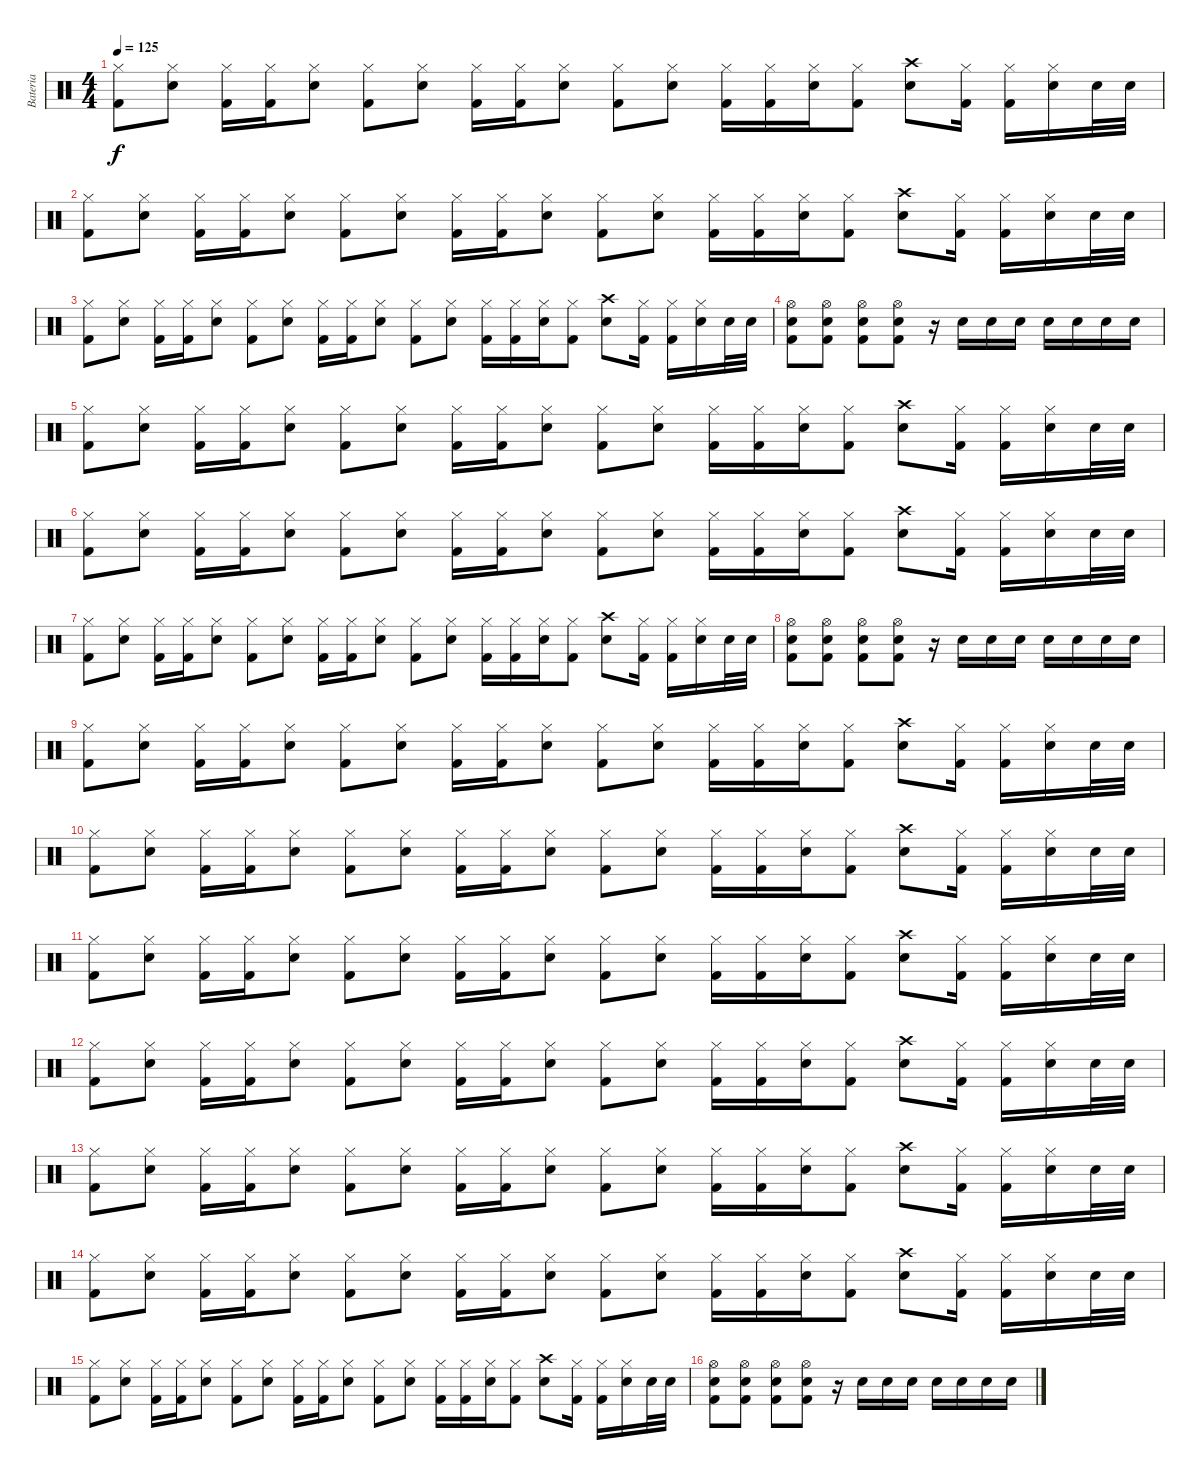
\track ("Bateria" "Bateria") {instrument percussion}
\staff {score}
\articulation defaults
\ts (4 4)
\tempo 125
\clef neutral
\ks c
("Kick (hit) 2" "Hi-Hat (closed)").8{dy f} ("Snare (hit) 2" "Hi-Hat (closed)").8 ("Kick (hit) 2" "Hi-Hat (closed)").16 ("Kick (hit) 2" "Hi-Hat (closed)").16 ("Snare (hit) 2" "Hi-Hat (closed)").8 ("Kick (hit) 2" "Hi-Hat (closed)").8 ("Snare (hit) 2" "Hi-Hat (closed)").8 ("Kick (hit) 2" "Hi-Hat (closed)").16 ("Kick (hit) 2" "Hi-Hat (closed)").16 ("Snare (hit) 2" "Hi-Hat (closed)").8 ("Kick (hit) 2" "Hi-Hat (closed)").8 ("Snare (hit) 2" "Hi-Hat (closed)").8 ("Kick (hit) 2" "Hi-Hat (closed)").16 ("Kick (hit) 2" "Hi-Hat (closed)").16 ("Snare (hit) 2" "Hi-Hat (closed)").16 ("Kick (hit) 2" "Hi-Hat (closed)").8 ("Snare (hit) 2" "Crash high (hit)").8 ("Kick (hit) 2" "Hi-Hat (closed)").16 ("Kick (hit) 2" "Hi-Hat (closed)").16 ("Snare (hit) 2" "Hi-Hat (closed)").16 "Snare (hit) 2".32 "Snare (hit) 2".32 |
("Kick (hit) 2" "Hi-Hat (closed)").8 ("Snare (hit) 2" "Hi-Hat (closed)").8 ("Kick (hit) 2" "Hi-Hat (closed)").16 ("Kick (hit) 2" "Hi-Hat (closed)").16 ("Snare (hit) 2" "Hi-Hat (closed)").8 ("Kick (hit) 2" "Hi-Hat (closed)").8 ("Snare (hit) 2" "Hi-Hat (closed)").8 ("Kick (hit) 2" "Hi-Hat (closed)").16 ("Kick (hit) 2" "Hi-Hat (closed)").16 ("Snare (hit) 2" "Hi-Hat (closed)").8 ("Kick (hit) 2" "Hi-Hat (closed)").8 ("Snare (hit) 2" "Hi-Hat (closed)").8 ("Kick (hit) 2" "Hi-Hat (closed)").16 ("Kick (hit) 2" "Hi-Hat (closed)").16 ("Snare (hit) 2" "Hi-Hat (closed)").16 ("Kick (hit) 2" "Hi-Hat (closed)").8 ("Snare (hit) 2" "Crash high (hit)").8 ("Kick (hit) 2" "Hi-Hat (closed)").16 ("Kick (hit) 2" "Hi-Hat (closed)").16 ("Snare (hit) 2" "Hi-Hat (closed)").16 "Snare (hit) 2".32 "Snare (hit) 2".32 |
("Kick (hit) 2" "Hi-Hat (closed)").8 ("Snare (hit) 2" "Hi-Hat (closed)").8 ("Kick (hit) 2" "Hi-Hat (closed)").16 ("Kick (hit) 2" "Hi-Hat (closed)").16 ("Snare (hit) 2" "Hi-Hat (closed)").8 ("Kick (hit) 2" "Hi-Hat (closed)").8 ("Snare (hit) 2" "Hi-Hat (closed)").8 ("Kick (hit) 2" "Hi-Hat (closed)").16 ("Kick (hit) 2" "Hi-Hat (closed)").16 ("Snare (hit) 2" "Hi-Hat (closed)").8 ("Kick (hit) 2" "Hi-Hat (closed)").8 ("Snare (hit) 2" "Hi-Hat (closed)").8 ("Kick (hit) 2" "Hi-Hat (closed)").16 ("Kick (hit) 2" "Hi-Hat (closed)").16 ("Snare (hit) 2" "Hi-Hat (closed)").16 ("Kick (hit) 2" "Hi-Hat (closed)").8 ("Snare (hit) 2" "Crash high (hit)").8 ("Kick (hit) 2" "Hi-Hat (closed)").16 ("Kick (hit) 2" "Hi-Hat (closed)").16 ("Snare (hit) 2" "Hi-Hat (closed)").16 "Snare (hit) 2".32 "Snare (hit) 2".32 |
("Kick (hit) 2" "Snare (hit) 2" "Hi-Hat (open)").8 ("Kick (hit) 2" "Snare (hit) 2" "Hi-Hat (open)").8 ("Kick (hit) 2" "Snare (hit) 2" "Hi-Hat (open)").8 ("Kick (hit) 2" "Snare (hit) 2" "Hi-Hat (open)").8 r.16 "Snare (hit) 2".16 "Snare (hit) 2".16 "Snare (hit) 2".16 "Snare (hit) 2".16 "Snare (hit) 2".16 "Snare (hit) 2".16 "Snare (hit) 2".16 |
("Kick (hit) 2" "Hi-Hat (closed)").8 ("Snare (hit) 2" "Hi-Hat (closed)").8 ("Kick (hit) 2" "Hi-Hat (closed)").16 ("Kick (hit) 2" "Hi-Hat (closed)").16 ("Snare (hit) 2" "Hi-Hat (closed)").8 ("Kick (hit) 2" "Hi-Hat (closed)").8 ("Snare (hit) 2" "Hi-Hat (closed)").8 ("Kick (hit) 2" "Hi-Hat (closed)").16 ("Kick (hit) 2" "Hi-Hat (closed)").16 ("Snare (hit) 2" "Hi-Hat (closed)").8 ("Kick (hit) 2" "Hi-Hat (closed)").8 ("Snare (hit) 2" "Hi-Hat (closed)").8 ("Kick (hit) 2" "Hi-Hat (closed)").16 ("Kick (hit) 2" "Hi-Hat (closed)").16 ("Snare (hit) 2" "Hi-Hat (closed)").16 ("Kick (hit) 2" "Hi-Hat (closed)").8 ("Snare (hit) 2" "Crash high (hit)").8 ("Kick (hit) 2" "Hi-Hat (closed)").16 ("Kick (hit) 2" "Hi-Hat (closed)").16 ("Snare (hit) 2" "Hi-Hat (closed)").16 "Snare (hit) 2".32 "Snare (hit) 2".32 |
("Kick (hit) 2" "Hi-Hat (closed)").8 ("Snare (hit) 2" "Hi-Hat (closed)").8 ("Kick (hit) 2" "Hi-Hat (closed)").16 ("Kick (hit) 2" "Hi-Hat (closed)").16 ("Snare (hit) 2" "Hi-Hat (closed)").8 ("Kick (hit) 2" "Hi-Hat (closed)").8 ("Snare (hit) 2" "Hi-Hat (closed)").8 ("Kick (hit) 2" "Hi-Hat (closed)").16 ("Kick (hit) 2" "Hi-Hat (closed)").16 ("Snare (hit) 2" "Hi-Hat (closed)").8 ("Kick (hit) 2" "Hi-Hat (closed)").8 ("Snare (hit) 2" "Hi-Hat (closed)").8 ("Kick (hit) 2" "Hi-Hat (closed)").16 ("Kick (hit) 2" "Hi-Hat (closed)").16 ("Snare (hit) 2" "Hi-Hat (closed)").16 ("Kick (hit) 2" "Hi-Hat (closed)").8 ("Snare (hit) 2" "Crash high (hit)").8 ("Kick (hit) 2" "Hi-Hat (closed)").16 ("Kick (hit) 2" "Hi-Hat (closed)").16 ("Snare (hit) 2" "Hi-Hat (closed)").16 "Snare (hit) 2".32 "Snare (hit) 2".32 |
("Kick (hit) 2" "Hi-Hat (closed)").8 ("Snare (hit) 2" "Hi-Hat (closed)").8 ("Kick (hit) 2" "Hi-Hat (closed)").16 ("Kick (hit) 2" "Hi-Hat (closed)").16 ("Snare (hit) 2" "Hi-Hat (closed)").8 ("Kick (hit) 2" "Hi-Hat (closed)").8 ("Snare (hit) 2" "Hi-Hat (closed)").8 ("Kick (hit) 2" "Hi-Hat (closed)").16 ("Kick (hit) 2" "Hi-Hat (closed)").16 ("Snare (hit) 2" "Hi-Hat (closed)").8 ("Kick (hit) 2" "Hi-Hat (closed)").8 ("Snare (hit) 2" "Hi-Hat (closed)").8 ("Kick (hit) 2" "Hi-Hat (closed)").16 ("Kick (hit) 2" "Hi-Hat (closed)").16 ("Snare (hit) 2" "Hi-Hat (closed)").16 ("Kick (hit) 2" "Hi-Hat (closed)").8 ("Snare (hit) 2" "Crash high (hit)").8 ("Kick (hit) 2" "Hi-Hat (closed)").16 ("Kick (hit) 2" "Hi-Hat (closed)").16 ("Snare (hit) 2" "Hi-Hat (closed)").16 "Snare (hit) 2".32 "Snare (hit) 2".32 |
("Kick (hit) 2" "Snare (hit) 2" "Hi-Hat (open)").8 ("Kick (hit) 2" "Snare (hit) 2" "Hi-Hat (open)").8 ("Kick (hit) 2" "Snare (hit) 2" "Hi-Hat (open)").8 ("Kick (hit) 2" "Snare (hit) 2" "Hi-Hat (open)").8 r.16 "Snare (hit) 2".16 "Snare (hit) 2".16 "Snare (hit) 2".16 "Snare (hit) 2".16 "Snare (hit) 2".16 "Snare (hit) 2".16 "Snare (hit) 2".16 |
("Kick (hit) 2" "Hi-Hat (closed)").8 ("Snare (hit) 2" "Hi-Hat (closed)").8 ("Kick (hit) 2" "Hi-Hat (closed)").16 ("Kick (hit) 2" "Hi-Hat (closed)").16 ("Snare (hit) 2" "Hi-Hat (closed)").8 ("Kick (hit) 2" "Hi-Hat (closed)").8 ("Snare (hit) 2" "Hi-Hat (closed)").8 ("Kick (hit) 2" "Hi-Hat (closed)").16 ("Kick (hit) 2" "Hi-Hat (closed)").16 ("Snare (hit) 2" "Hi-Hat (closed)").8 ("Kick (hit) 2" "Hi-Hat (closed)").8 ("Snare (hit) 2" "Hi-Hat (closed)").8 ("Kick (hit) 2" "Hi-Hat (closed)").16 ("Kick (hit) 2" "Hi-Hat (closed)").16 ("Snare (hit) 2" "Hi-Hat (closed)").16 ("Kick (hit) 2" "Hi-Hat (closed)").8 ("Snare (hit) 2" "Crash high (hit)").8 ("Kick (hit) 2" "Hi-Hat (closed)").16 ("Kick (hit) 2" "Hi-Hat (closed)").16 ("Snare (hit) 2" "Hi-Hat (closed)").16 "Snare (hit) 2".32 "Snare (hit) 2".32 |
("Kick (hit) 2" "Hi-Hat (closed)").8 ("Snare (hit) 2" "Hi-Hat (closed)").8 ("Kick (hit) 2" "Hi-Hat (closed)").16 ("Kick (hit) 2" "Hi-Hat (closed)").16 ("Snare (hit) 2" "Hi-Hat (closed)").8 ("Kick (hit) 2" "Hi-Hat (closed)").8 ("Snare (hit) 2" "Hi-Hat (closed)").8 ("Kick (hit) 2" "Hi-Hat (closed)").16 ("Kick (hit) 2" "Hi-Hat (closed)").16 ("Snare (hit) 2" "Hi-Hat (closed)").8 ("Kick (hit) 2" "Hi-Hat (closed)").8 ("Snare (hit) 2" "Hi-Hat (closed)").8 ("Kick (hit) 2" "Hi-Hat (closed)").16 ("Kick (hit) 2" "Hi-Hat (closed)").16 ("Snare (hit) 2" "Hi-Hat (closed)").16 ("Kick (hit) 2" "Hi-Hat (closed)").8 ("Snare (hit) 2" "Crash high (hit)").8 ("Kick (hit) 2" "Hi-Hat (closed)").16 ("Kick (hit) 2" "Hi-Hat (closed)").16 ("Snare (hit) 2" "Hi-Hat (closed)").16 "Snare (hit) 2".32 "Snare (hit) 2".32 |
("Kick (hit) 2" "Hi-Hat (closed)").8 ("Snare (hit) 2" "Hi-Hat (closed)").8 ("Kick (hit) 2" "Hi-Hat (closed)").16 ("Kick (hit) 2" "Hi-Hat (closed)").16 ("Snare (hit) 2" "Hi-Hat (closed)").8 ("Kick (hit) 2" "Hi-Hat (closed)").8 ("Snare (hit) 2" "Hi-Hat (closed)").8 ("Kick (hit) 2" "Hi-Hat (closed)").16 ("Kick (hit) 2" "Hi-Hat (closed)").16 ("Snare (hit) 2" "Hi-Hat (closed)").8 ("Kick (hit) 2" "Hi-Hat (closed)").8 ("Snare (hit) 2" "Hi-Hat (closed)").8 ("Kick (hit) 2" "Hi-Hat (closed)").16 ("Kick (hit) 2" "Hi-Hat (closed)").16 ("Snare (hit) 2" "Hi-Hat (closed)").16 ("Kick (hit) 2" "Hi-Hat (closed)").8 ("Snare (hit) 2" "Crash high (hit)").8 ("Kick (hit) 2" "Hi-Hat (closed)").16 ("Kick (hit) 2" "Hi-Hat (closed)").16 ("Snare (hit) 2" "Hi-Hat (closed)").16 "Snare (hit) 2".32 "Snare (hit) 2".32 |
("Kick (hit) 2" "Hi-Hat (closed)").8 ("Snare (hit) 2" "Hi-Hat (closed)").8 ("Kick (hit) 2" "Hi-Hat (closed)").16 ("Kick (hit) 2" "Hi-Hat (closed)").16 ("Snare (hit) 2" "Hi-Hat (closed)").8 ("Kick (hit) 2" "Hi-Hat (closed)").8 ("Snare (hit) 2" "Hi-Hat (closed)").8 ("Kick (hit) 2" "Hi-Hat (closed)").16 ("Kick (hit) 2" "Hi-Hat (closed)").16 ("Snare (hit) 2" "Hi-Hat (closed)").8 ("Kick (hit) 2" "Hi-Hat (closed)").8 ("Snare (hit) 2" "Hi-Hat (closed)").8 ("Kick (hit) 2" "Hi-Hat (closed)").16 ("Kick (hit) 2" "Hi-Hat (closed)").16 ("Snare (hit) 2" "Hi-Hat (closed)").16 ("Kick (hit) 2" "Hi-Hat (closed)").8 ("Snare (hit) 2" "Crash high (hit)").8 ("Kick (hit) 2" "Hi-Hat (closed)").16 ("Kick (hit) 2" "Hi-Hat (closed)").16 ("Snare (hit) 2" "Hi-Hat (closed)").16 "Snare (hit) 2".32 "Snare (hit) 2".32 |
("Kick (hit) 2" "Hi-Hat (closed)").8 ("Snare (hit) 2" "Hi-Hat (closed)").8 ("Kick (hit) 2" "Hi-Hat (closed)").16 ("Kick (hit) 2" "Hi-Hat (closed)").16 ("Snare (hit) 2" "Hi-Hat (closed)").8 ("Kick (hit) 2" "Hi-Hat (closed)").8 ("Snare (hit) 2" "Hi-Hat (closed)").8 ("Kick (hit) 2" "Hi-Hat (closed)").16 ("Kick (hit) 2" "Hi-Hat (closed)").16 ("Snare (hit) 2" "Hi-Hat (closed)").8 ("Kick (hit) 2" "Hi-Hat (closed)").8 ("Snare (hit) 2" "Hi-Hat (closed)").8 ("Kick (hit) 2" "Hi-Hat (closed)").16 ("Kick (hit) 2" "Hi-Hat (closed)").16 ("Snare (hit) 2" "Hi-Hat (closed)").16 ("Kick (hit) 2" "Hi-Hat (closed)").8 ("Snare (hit) 2" "Crash high (hit)").8 ("Kick (hit) 2" "Hi-Hat (closed)").16 ("Kick (hit) 2" "Hi-Hat (closed)").16 ("Snare (hit) 2" "Hi-Hat (closed)").16 "Snare (hit) 2".32 "Snare (hit) 2".32 |
("Kick (hit) 2" "Hi-Hat (closed)").8 ("Snare (hit) 2" "Hi-Hat (closed)").8 ("Kick (hit) 2" "Hi-Hat (closed)").16 ("Kick (hit) 2" "Hi-Hat (closed)").16 ("Snare (hit) 2" "Hi-Hat (closed)").8 ("Kick (hit) 2" "Hi-Hat (closed)").8 ("Snare (hit) 2" "Hi-Hat (closed)").8 ("Kick (hit) 2" "Hi-Hat (closed)").16 ("Kick (hit) 2" "Hi-Hat (closed)").16 ("Snare (hit) 2" "Hi-Hat (closed)").8 ("Kick (hit) 2" "Hi-Hat (closed)").8 ("Snare (hit) 2" "Hi-Hat (closed)").8 ("Kick (hit) 2" "Hi-Hat (closed)").16 ("Kick (hit) 2" "Hi-Hat (closed)").16 ("Snare (hit) 2" "Hi-Hat (closed)").16 ("Kick (hit) 2" "Hi-Hat (closed)").8 ("Snare (hit) 2" "Crash high (hit)").8 ("Kick (hit) 2" "Hi-Hat (closed)").16 ("Kick (hit) 2" "Hi-Hat (closed)").16 ("Snare (hit) 2" "Hi-Hat (closed)").16 "Snare (hit) 2".32 "Snare (hit) 2".32 |
("Kick (hit) 2" "Hi-Hat (closed)").8 ("Snare (hit) 2" "Hi-Hat (closed)").8 ("Kick (hit) 2" "Hi-Hat (closed)").16 ("Kick (hit) 2" "Hi-Hat (closed)").16 ("Snare (hit) 2" "Hi-Hat (closed)").8 ("Kick (hit) 2" "Hi-Hat (closed)").8 ("Snare (hit) 2" "Hi-Hat (closed)").8 ("Kick (hit) 2" "Hi-Hat (closed)").16 ("Kick (hit) 2" "Hi-Hat (closed)").16 ("Snare (hit) 2" "Hi-Hat (closed)").8 ("Kick (hit) 2" "Hi-Hat (closed)").8 ("Snare (hit) 2" "Hi-Hat (closed)").8 ("Kick (hit) 2" "Hi-Hat (closed)").16 ("Kick (hit) 2" "Hi-Hat (closed)").16 ("Snare (hit) 2" "Hi-Hat (closed)").16 ("Kick (hit) 2" "Hi-Hat (closed)").8 ("Snare (hit) 2" "Crash high (hit)").8 ("Kick (hit) 2" "Hi-Hat (closed)").16 ("Kick (hit) 2" "Hi-Hat (closed)").16 ("Snare (hit) 2" "Hi-Hat (closed)").16 "Snare (hit) 2".32 "Snare (hit) 2".32 |
("Kick (hit) 2" "Snare (hit) 2" "Hi-Hat (open)").8 ("Kick (hit) 2" "Snare (hit) 2" "Hi-Hat (open)").8 ("Kick (hit) 2" "Snare (hit) 2" "Hi-Hat (open)").8 ("Kick (hit) 2" "Snare (hit) 2" "Hi-Hat (open)").8 r.16 "Snare (hit) 2".16 "Snare (hit) 2".16 "Snare (hit) 2".16 "Snare (hit) 2".16 "Snare (hit) 2".16 "Snare (hit) 2".16 "Snare (hit) 2".16
